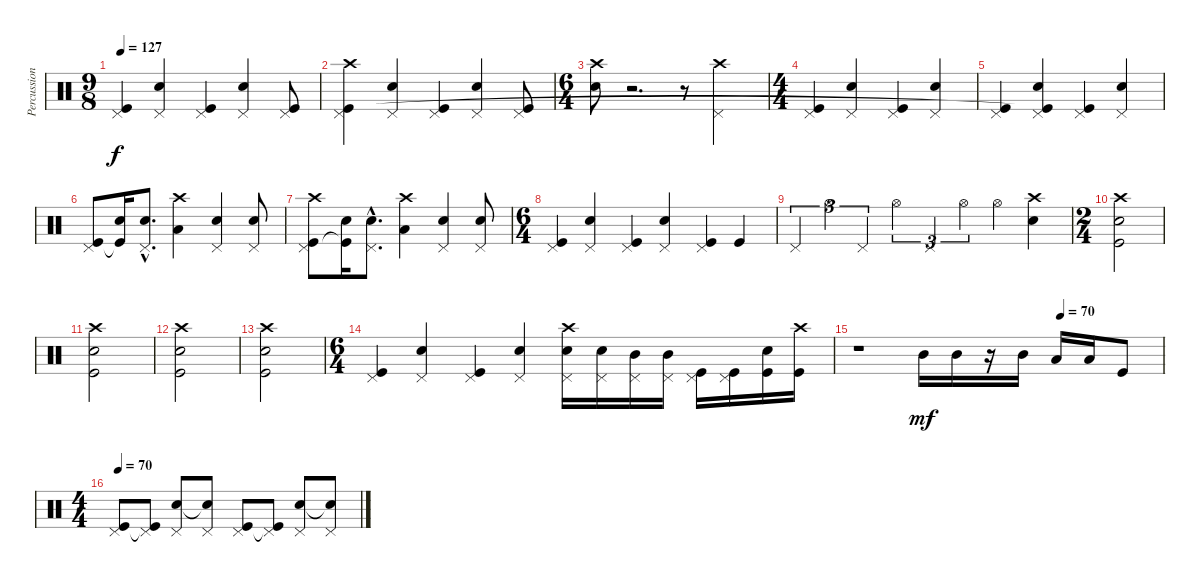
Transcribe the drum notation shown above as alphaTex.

\track ("Percussion" "Percussion") {instrument percussion}
\staff {score}
\articulation defaults
\ts (9 8)
\tempo 127
\clef neutral
\ks c
("Pedal Hi-Hat (hit)" "Kick (hit)").4{dy f} ("Pedal Hi-Hat (hit)" "Snare (hit) 2").4 ("Pedal Hi-Hat (hit)" "Kick (hit)").4 ("Pedal Hi-Hat (hit)" "Snare (hit) 2").4 ("Pedal Hi-Hat (hit)" "Kick (hit)").8 |
("Crash high (hit)" "Pedal Hi-Hat (hit)" "Kick (hit)").4 ("Pedal Hi-Hat (hit)" "Snare (hit) 2").4 ("Pedal Hi-Hat (hit)" "Kick (hit)").4 ("Pedal Hi-Hat (hit)" "Snare (hit) 2").4 ("Pedal Hi-Hat (hit)" "Kick (hit)").8 |
\ts (6 4)
("Crash high (hit)" "Snare (hit) 2").8 r.2{d} r.8 ("Crash high (hit)" "Pedal Hi-Hat (hit)").2 |
\ts (4 4)
("Pedal Hi-Hat (hit)" "Kick (hit)").4 ("Pedal Hi-Hat (hit)" "Snare (hit) 2").4 ("Pedal Hi-Hat (hit)" "Kick (hit)").4 ("Pedal Hi-Hat (hit)" "Snare (hit) 2").4 |
("Pedal Hi-Hat (hit)" "Kick (hit)").4 ("Pedal Hi-Hat (hit)" "Snare (hit) 2" "Kick (hit)"{t}).4 ("Pedal Hi-Hat (hit)" "Kick (hit)").4 ("Pedal Hi-Hat (hit)" "Snare (hit) 2").4 |
("Pedal Hi-Hat (hit)" "Kick (hit)").8 ("Snare (hit) 2" "Kick (hit)"{t}).16 ("Pedal Hi-Hat (hit)"{hac} "Snare (hit) 2"{hac}).8{d} ("Crash high (hit)" "Low Tom (hit)").4 ("Pedal Hi-Hat (hit)" "Snare (hit) 2").4 ("Pedal Hi-Hat (hit)" "Snare (hit) 2").8 |
("Crash high (hit)" "Pedal Hi-Hat (hit)" "Kick (hit)").8 ("Snare (hit) 2" "Kick (hit)"{t}).16 ("Pedal Hi-Hat (hit)"{hac} "Snare (hit) 2"{hac}).8{d} ("Crash high (hit)" "Low Tom (hit)").4 ("Pedal Hi-Hat (hit)" "Snare (hit) 2").4 ("Pedal Hi-Hat (hit)" "Snare (hit) 2").8 |
\ts (6 4)
("Pedal Hi-Hat (hit)" "Kick (hit)").4 ("Pedal Hi-Hat (hit)" "Snare (hit) 2").4 ("Pedal Hi-Hat (hit)" "Kick (hit)").4 ("Pedal Hi-Hat (hit)" "Snare (hit) 2").4 ("Pedal Hi-Hat (hit)" "Kick (hit)").4 "Kick (hit)".4 |
"Pedal Hi-Hat (hit)".4{tu (3 2)} "Hi-Hat (open)".4{tu (3 2)} "Pedal Hi-Hat (hit)".4{tu (3 2)} "Hi-Hat (open)".4{tu (3 2)} "Pedal Hi-Hat (hit)".4{tu (3 2)} "Hi-Hat (open)".4{tu (3 2)} "Hi-Hat (open)".4 ("Crash high (hit)" "Snare (hit) 2").4 |
\ts (2 4)
("Crash high (hit)" "Snare (hit) 2" "Kick (hit)").2 |
("Crash high (hit)" "Snare (hit) 2" "Kick (hit)").2 |
("Crash high (hit)" "Snare (hit) 2" "Kick (hit)").2 |
("Crash high (hit)" "Snare (hit) 2" "Kick (hit)").2 |
\ts (6 4)
("Pedal Hi-Hat (hit)" "Kick (hit)").4 ("Pedal Hi-Hat (hit)" "Snare (hit) 2").4 ("Pedal Hi-Hat (hit)" "Kick (hit)").4 ("Pedal Hi-Hat (hit)" "Snare (hit) 2").4 ("Crash high (hit)" "Pedal Hi-Hat (hit)" "Snare (hit) 2").16 ("Pedal Hi-Hat (hit)" "Snare (hit) 2").16 ("Pedal Hi-Hat (hit)" "Mid Tom (hit)").16 ("Pedal Hi-Hat (hit)" "Mid Tom (hit)").16 ("Pedal Hi-Hat (hit)" "Kick (hit)").16 ("Pedal Hi-Hat (hit)" "Kick (hit)").16 ("Snare (hit) 2" "Kick (hit)").16 ("Crash high (hit)" "Kick (hit)").16 |
\tempo (70 0.6666666666666666)
r.1 "Mid Tom (hit)".16{dy mf} "Mid Tom (hit)".16 r.16 "Mid Tom (hit)".16 "Low Tom (hit)".16 "Low Tom (hit)".16 "Kick (hit)".8 |
\ts (4 4)
\tempo 70
("Pedal Hi-Hat (hit)" "Kick (hit)").8 ("Pedal Hi-Hat (hit)" "Kick (hit)"{t}).8 ("Pedal Hi-Hat (hit)" "Snare (hit) 2").8 ("Pedal Hi-Hat (hit)" "Snare (hit) 2"{t}).8 ("Pedal Hi-Hat (hit)" "Kick (hit)").8 ("Pedal Hi-Hat (hit)" "Kick (hit)"{t}).8 ("Pedal Hi-Hat (hit)" "Snare (hit) 2").8 ("Pedal Hi-Hat (hit)" "Snare (hit) 2"{t}).8
